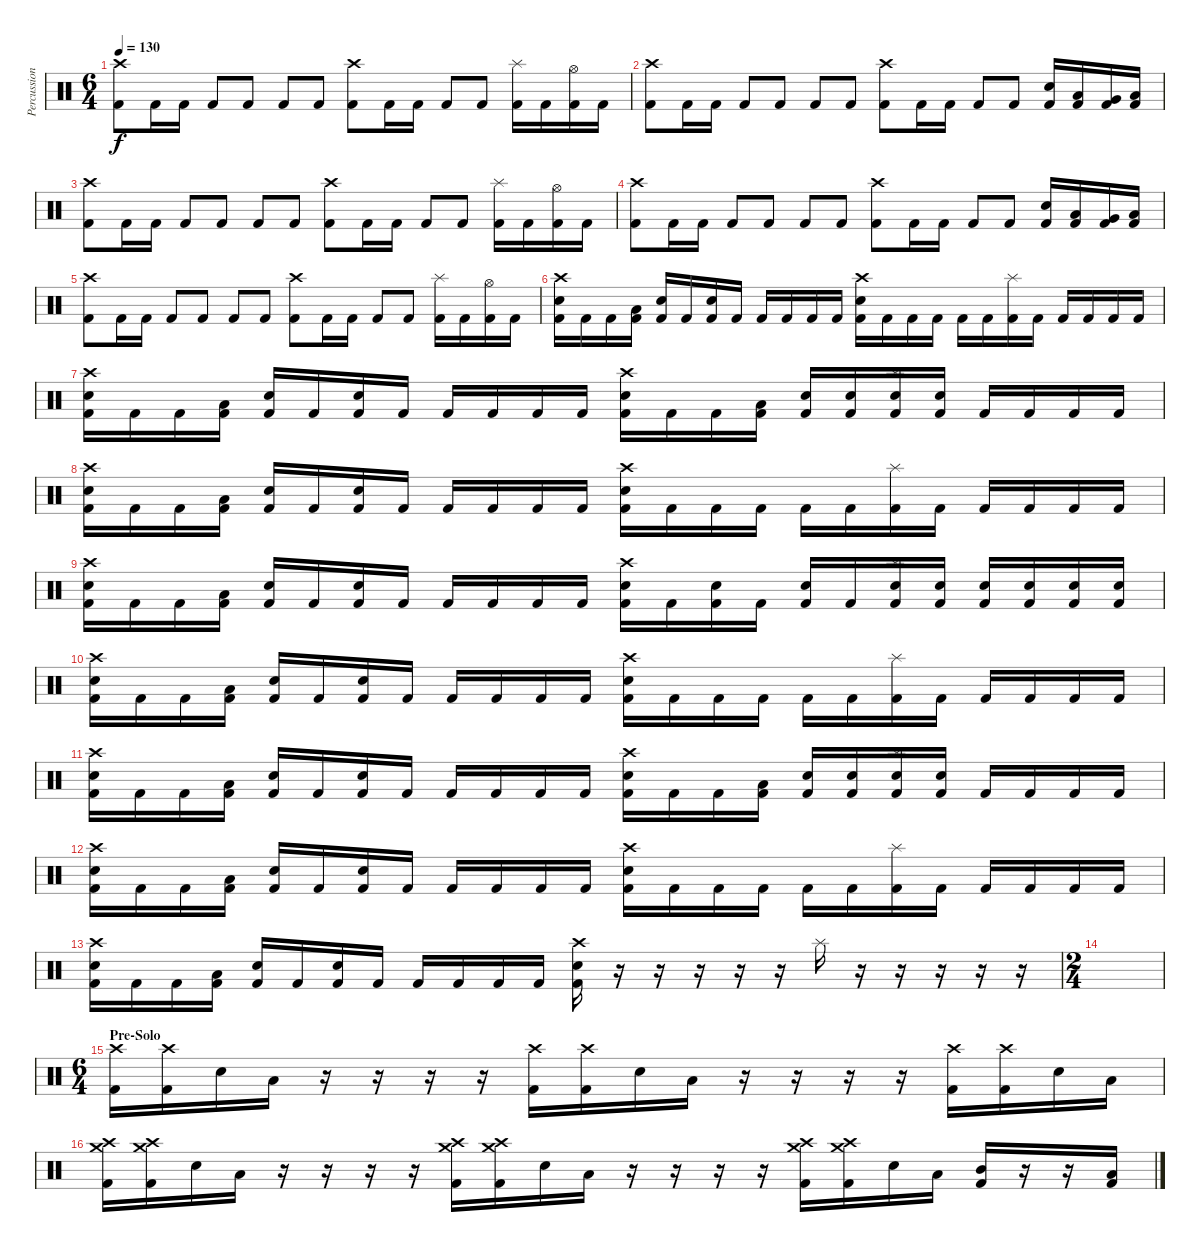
\track ("Percussion" "Percussion") {instrument percussion}
\staff {score}
\articulation defaults
\ts (6 4)
\tempo 130
\clef neutral
\ks c
("Crash high (hit)" "Kick (hit) 2").8{dy f} "Kick (hit) 2".16 "Kick (hit) 2".16 "Kick (hit) 2".8 "Kick (hit) 2".8 "Kick (hit) 2".8 "Kick (hit) 2".8 ("Crash high (hit)" "Kick (hit) 2").8 "Kick (hit) 2".16 "Kick (hit) 2".16 "Kick (hit) 2".8 "Kick (hit) 2".8 ("Splash (hit)" "Kick (hit) 2").16 "Kick (hit) 2".16 ("Hi-Hat (open)" "Kick (hit) 2").16 "Kick (hit) 2".16 |
("Crash high (hit)" "Kick (hit) 2").8 "Kick (hit) 2".16 "Kick (hit) 2".16 "Kick (hit) 2".8 "Kick (hit) 2".8 "Kick (hit) 2".8 "Kick (hit) 2".8 ("Crash high (hit)" "Kick (hit) 2").8 "Kick (hit) 2".16 "Kick (hit) 2".16 "Kick (hit) 2".8 "Kick (hit) 2".8 ("Electric Snare (hit)" "Kick (hit) 2").16 ("Low Tom (hit)" "Kick (hit) 2").16 ("Very Low Tom (hit)" "Kick (hit) 2").16 ("Low Floor Tom (hit)" "Kick (hit) 2").16 |
("Crash high (hit)" "Kick (hit) 2").8 "Kick (hit) 2".16 "Kick (hit) 2".16 "Kick (hit) 2".8 "Kick (hit) 2".8 "Kick (hit) 2".8 "Kick (hit) 2".8 ("Crash high (hit)" "Kick (hit) 2").8 "Kick (hit) 2".16 "Kick (hit) 2".16 "Kick (hit) 2".8 "Kick (hit) 2".8 ("Splash (hit)" "Kick (hit) 2").16 "Kick (hit) 2".16 ("Hi-Hat (open)" "Kick (hit) 2").16 "Kick (hit) 2".16 |
("Crash high (hit)" "Kick (hit) 2").8 "Kick (hit) 2".16 "Kick (hit) 2".16 "Kick (hit) 2".8 "Kick (hit) 2".8 "Kick (hit) 2".8 "Kick (hit) 2".8 ("Crash high (hit)" "Kick (hit) 2").8 "Kick (hit) 2".16 "Kick (hit) 2".16 "Kick (hit) 2".8 "Kick (hit) 2".8 ("Electric Snare (hit)" "Kick (hit) 2").16 ("Low Tom (hit)" "Kick (hit) 2").16 ("Very Low Tom (hit)" "Kick (hit) 2").16 ("Low Floor Tom (hit)" "Kick (hit) 2").16 |
("Crash high (hit)" "Kick (hit) 2").8 "Kick (hit) 2".16 "Kick (hit) 2".16 "Kick (hit) 2".8 "Kick (hit) 2".8 "Kick (hit) 2".8 "Kick (hit) 2".8 ("Crash high (hit)" "Kick (hit) 2").8 "Kick (hit) 2".16 "Kick (hit) 2".16 "Kick (hit) 2".8 "Kick (hit) 2".8 ("Splash (hit)" "Kick (hit) 2").16 "Kick (hit) 2".16 ("Hi-Hat (open)" "Kick (hit) 2").16 "Kick (hit) 2".16 |
("Crash high (hit)" "Snare (hit) 2" "Kick (hit) 2").16 "Kick (hit) 2".16 "Kick (hit) 2".16 ("Low Tom (hit)" "Kick (hit) 2").16 ("Snare (hit) 2" "Kick (hit) 2").16 "Kick (hit) 2".16 ("Snare (hit) 2" "Kick (hit) 2").16 "Kick (hit) 2".16 "Kick (hit) 2".16 "Kick (hit) 2".16 "Kick (hit) 2".16 "Kick (hit) 2".16 ("Crash high (hit)" "Snare (hit) 2" "Kick (hit) 2").16 "Kick (hit) 2".16 "Kick (hit) 2".16 "Kick (hit) 2".16 "Kick (hit) 2".16 "Kick (hit) 2".16 ("Splash (hit)" "Kick (hit) 2").16 "Kick (hit) 2".16 "Kick (hit) 2".16 "Kick (hit) 2".16 "Kick (hit) 2".16 "Kick (hit) 2".16 |
("Crash high (hit)" "Snare (hit) 2" "Kick (hit) 2").16 "Kick (hit) 2".16 "Kick (hit) 2".16 ("Low Tom (hit)" "Kick (hit) 2").16 ("Snare (hit) 2" "Kick (hit) 2").16 "Kick (hit) 2".16 ("Snare (hit) 2" "Kick (hit) 2").16 "Kick (hit) 2".16 "Kick (hit) 2".16 "Kick (hit) 2".16 "Kick (hit) 2".16 "Kick (hit) 2".16 ("Crash high (hit)" "Snare (hit) 2" "Kick (hit) 2").16 "Kick (hit) 2".16 "Kick (hit) 2".16 ("Low Tom (hit)" "Kick (hit) 2").16 ("Snare (hit) 2" "Kick (hit) 2").16 ("Electric Snare (hit)" "Kick (hit) 2").16 ("Splash (hit)" "Snare (hit) 2" "Kick (hit) 2").16 ("Electric Snare (hit)" "Kick (hit) 2").16 "Kick (hit) 2".16 "Kick (hit) 2".16 "Kick (hit) 2".16 "Kick (hit) 2".16 |
("Crash high (hit)" "Snare (hit) 2" "Kick (hit) 2").16 "Kick (hit) 2".16 "Kick (hit) 2".16 ("Low Tom (hit)" "Kick (hit) 2").16 ("Snare (hit) 2" "Kick (hit) 2").16 "Kick (hit) 2".16 ("Snare (hit) 2" "Kick (hit) 2").16 "Kick (hit) 2".16 "Kick (hit) 2".16 "Kick (hit) 2".16 "Kick (hit) 2".16 "Kick (hit) 2".16 ("Crash high (hit)" "Snare (hit) 2" "Kick (hit) 2").16 "Kick (hit) 2".16 "Kick (hit) 2".16 "Kick (hit) 2".16 "Kick (hit) 2".16 "Kick (hit) 2".16 ("Splash (hit)" "Kick (hit) 2").16 "Kick (hit) 2".16 "Kick (hit) 2".16 "Kick (hit) 2".16 "Kick (hit) 2".16 "Kick (hit) 2".16 |
("Crash high (hit)" "Snare (hit) 2" "Kick (hit) 2").16 "Kick (hit) 2".16 "Kick (hit) 2".16 ("Low Tom (hit)" "Kick (hit) 2").16 ("Snare (hit) 2" "Kick (hit) 2").16 "Kick (hit) 2".16 ("Snare (hit) 2" "Kick (hit) 2").16 "Kick (hit) 2".16 "Kick (hit) 2".16 "Kick (hit) 2".16 "Kick (hit) 2".16 "Kick (hit) 2".16 ("Crash high (hit)" "Snare (hit) 2" "Kick (hit) 2").16 "Kick (hit) 2".16 ("Snare (hit) 2" "Kick (hit) 2").16 "Kick (hit) 2".16 ("Snare (hit) 2" "Kick (hit) 2").16 "Kick (hit) 2".16 ("Splash (hit)" "Snare (hit) 2" "Kick (hit) 2").16 ("Electric Snare (hit)" "Kick (hit) 2").16 ("Snare (hit) 2" "Kick (hit) 2").16 ("Electric Snare (hit)" "Kick (hit) 2").16 ("Snare (hit) 2" "Kick (hit) 2").16 ("Electric Snare (hit)" "Kick (hit) 2").16 |
("Crash high (hit)" "Snare (hit) 2" "Kick (hit) 2").16 "Kick (hit) 2".16 "Kick (hit) 2".16 ("Low Tom (hit)" "Kick (hit) 2").16 ("Snare (hit) 2" "Kick (hit) 2").16 "Kick (hit) 2".16 ("Snare (hit) 2" "Kick (hit) 2").16 "Kick (hit) 2".16 "Kick (hit) 2".16 "Kick (hit) 2".16 "Kick (hit) 2".16 "Kick (hit) 2".16 ("Crash high (hit)" "Snare (hit) 2" "Kick (hit) 2").16 "Kick (hit) 2".16 "Kick (hit) 2".16 "Kick (hit) 2".16 "Kick (hit) 2".16 "Kick (hit) 2".16 ("Splash (hit)" "Kick (hit) 2").16 "Kick (hit) 2".16 "Kick (hit) 2".16 "Kick (hit) 2".16 "Kick (hit) 2".16 "Kick (hit) 2".16 |
("Crash high (hit)" "Snare (hit) 2" "Kick (hit) 2").16 "Kick (hit) 2".16 "Kick (hit) 2".16 ("Low Tom (hit)" "Kick (hit) 2").16 ("Snare (hit) 2" "Kick (hit) 2").16 "Kick (hit) 2".16 ("Snare (hit) 2" "Kick (hit) 2").16 "Kick (hit) 2".16 "Kick (hit) 2".16 "Kick (hit) 2".16 "Kick (hit) 2".16 "Kick (hit) 2".16 ("Crash high (hit)" "Snare (hit) 2" "Kick (hit) 2").16 "Kick (hit) 2".16 "Kick (hit) 2".16 ("Low Tom (hit)" "Kick (hit) 2").16 ("Snare (hit) 2" "Kick (hit) 2").16 ("Electric Snare (hit)" "Kick (hit) 2").16 ("Splash (hit)" "Snare (hit) 2" "Kick (hit) 2").16 ("Electric Snare (hit)" "Kick (hit) 2").16 "Kick (hit) 2".16 "Kick (hit) 2".16 "Kick (hit) 2".16 "Kick (hit) 2".16 |
("Crash high (hit)" "Snare (hit) 2" "Kick (hit) 2").16 "Kick (hit) 2".16 "Kick (hit) 2".16 ("Low Tom (hit)" "Kick (hit) 2").16 ("Snare (hit) 2" "Kick (hit) 2").16 "Kick (hit) 2".16 ("Snare (hit) 2" "Kick (hit) 2").16 "Kick (hit) 2".16 "Kick (hit) 2".16 "Kick (hit) 2".16 "Kick (hit) 2".16 "Kick (hit) 2".16 ("Crash high (hit)" "Snare (hit) 2" "Kick (hit) 2").16 "Kick (hit) 2".16 "Kick (hit) 2".16 "Kick (hit) 2".16 "Kick (hit) 2".16 "Kick (hit) 2".16 ("Splash (hit)" "Kick (hit) 2").16 "Kick (hit) 2".16 "Kick (hit) 2".16 "Kick (hit) 2".16 "Kick (hit) 2".16 "Kick (hit) 2".16 |
("Crash high (hit)" "Snare (hit) 2" "Kick (hit) 2").16 "Kick (hit) 2".16 "Kick (hit) 2".16 ("Low Tom (hit)" "Kick (hit) 2").16 ("Snare (hit) 2" "Kick (hit) 2").16 "Kick (hit) 2".16 ("Snare (hit) 2" "Kick (hit) 2").16 "Kick (hit) 2".16 "Kick (hit) 2".16 "Kick (hit) 2".16 "Kick (hit) 2".16 "Kick (hit) 2".16 ("Crash high (hit)" "Snare (hit) 2" "Kick (hit) 2").16 r.16 r.16 r.16 r.16 r.16 "Splash (hit)".16 r.16 r.16 r.16 r.16 r.16 |
\ts (2 4)
|
\ts (6 4)
\section ("" "Pre-Solo")
("Crash high (hit)" "Kick (hit) 2").16 ("Crash high (hit)" "Kick (hit) 2").16 "Electric Snare (hit)".16 "Low Tom (hit)".16 r.16 r.16 r.16 r.16 ("Crash high (hit)" "Kick (hit) 2").16 ("Crash high (hit)" "Kick (hit) 2").16 "Electric Snare (hit)".16 "Low Tom (hit)".16 r.16 r.16 r.16 r.16 ("Crash high (hit)" "Kick (hit) 2").16 ("Crash high (hit)" "Kick (hit) 2").16 "Electric Snare (hit)".16 "Low Tom (hit)".16 |
("Crash medium (hit)" "Crash high (hit)" "Kick (hit) 2").16 ("Crash medium (hit)" "Crash high (hit)" "Kick (hit) 2").16 "Electric Snare (hit)".16 "Low Tom (hit)".16 r.16 r.16 r.16 r.16 ("Crash medium (hit)" "Crash high (hit)" "Kick (hit) 2").16 ("Crash medium (hit)" "Crash high (hit)" "Kick (hit) 2").16 "Electric Snare (hit)".16 "Low Tom (hit)".16 r.16 r.16 r.16 r.16 ("Crash medium (hit)" "Crash high (hit)" "Kick (hit) 2").16 ("Crash medium (hit)" "Crash high (hit)" "Kick (hit) 2").16 "Electric Snare (hit)".16 "Low Tom (hit)".16 ("Mid Tom (hit)" "Kick (hit) 2").16 r.16 r.16 ("Low Floor Tom (hit)" "Kick (hit) 2").16
